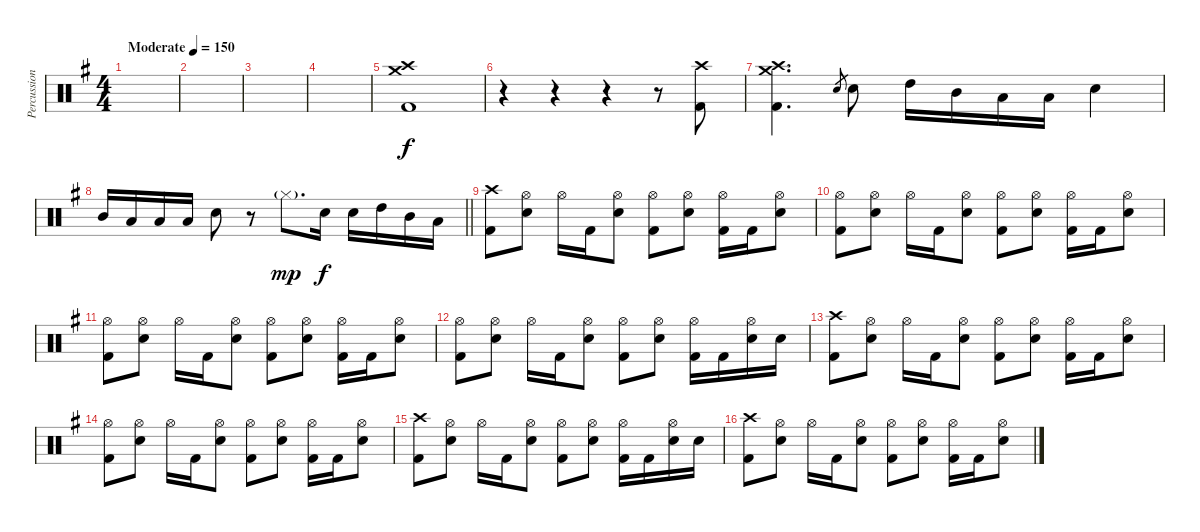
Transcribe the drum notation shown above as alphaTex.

\track ("Percussion" "Percussion") {instrument percussion}
\staff {score}
\articulation defaults
\ts (4 4)
\tempo (150 "Moderate")
\clef neutral
\ks g
|
|
|
|
("Crash medium (hit)" "Crash high (hit)" "Kick (hit) 2").1 |
r.4 r.4 r.4 r.8 ("Crash high (hit)" "Kick (hit) 2").8 |
("Crash medium (hit)" "Crash high (hit)" "Kick (hit) 2").4{d} "Electric Snare (hit)".8{gr} "Electric Snare (hit)".8 "High Tom (hit)".16 "Mid Tom (hit)".16 "Low Tom (hit)".16 "Low Tom (hit)".16 "Electric Snare (hit)".4 |
\barLineRight lightlight "Mid Tom (hit)".16 "Low Tom (hit)".16 "Low Tom (hit)".16 "Low Tom (hit)".16 "Electric Snare (hit)".8
r.8 "Hi-Hat (closed)"{g}.8{d dy mp} "Electric Snare (hit)".16{dy f} "Electric Snare (hit)".16 "High Tom (hit)".16 "Mid Tom (hit)".16 "Low Tom (hit)".16 |
("Crash high (hit)" "Kick (hit) 2").8 ("Hi-Hat (open)" "Electric Snare (hit)").8 "Hi-Hat (open)".16 "Kick (hit) 2".16 ("Hi-Hat (open)" "Electric Snare (hit)").8 ("Hi-Hat (open)" "Kick (hit) 2").8 ("Hi-Hat (open)" "Electric Snare (hit)").8 ("Hi-Hat (open)" "Kick (hit) 2").16 "Kick (hit) 2".16 ("Hi-Hat (open)" "Electric Snare (hit)").8 |
("Hi-Hat (open)" "Kick (hit) 2").8 ("Hi-Hat (open)" "Electric Snare (hit)").8 "Hi-Hat (open)".16 "Kick (hit) 2".16 ("Hi-Hat (open)" "Electric Snare (hit)").8 ("Hi-Hat (open)" "Kick (hit) 2").8 ("Hi-Hat (open)" "Electric Snare (hit)").8 ("Hi-Hat (open)" "Kick (hit) 2").16 "Kick (hit) 2".16 ("Hi-Hat (open)" "Electric Snare (hit)").8 |
("Hi-Hat (open)" "Kick (hit) 2").8 ("Hi-Hat (open)" "Electric Snare (hit)").8 "Hi-Hat (open)".16 "Kick (hit) 2".16 ("Hi-Hat (open)" "Electric Snare (hit)").8 ("Hi-Hat (open)" "Kick (hit) 2").8 ("Hi-Hat (open)" "Electric Snare (hit)").8 ("Hi-Hat (open)" "Kick (hit) 2").16 "Kick (hit) 2".16 ("Hi-Hat (open)" "Electric Snare (hit)").8 |
("Hi-Hat (open)" "Kick (hit) 2").8 ("Hi-Hat (open)" "Electric Snare (hit)").8 "Hi-Hat (open)".16 "Kick (hit) 2".16 ("Hi-Hat (open)" "Electric Snare (hit)").8 ("Hi-Hat (open)" "Kick (hit) 2").8 ("Hi-Hat (open)" "Electric Snare (hit)").8 ("Hi-Hat (open)" "Kick (hit) 2").16 "Kick (hit) 2".16 ("Hi-Hat (open)" "Electric Snare (hit)").16 "Electric Snare (hit)".16 |
("Crash high (hit)" "Kick (hit) 2").8 ("Hi-Hat (open)" "Electric Snare (hit)").8 "Hi-Hat (open)".16 "Kick (hit) 2".16 ("Hi-Hat (open)" "Electric Snare (hit)").8 ("Hi-Hat (open)" "Kick (hit) 2").8 ("Hi-Hat (open)" "Electric Snare (hit)").8 ("Hi-Hat (open)" "Kick (hit) 2").16 "Kick (hit) 2".16 ("Hi-Hat (open)" "Electric Snare (hit)").8 |
("Hi-Hat (open)" "Kick (hit) 2").8 ("Hi-Hat (open)" "Electric Snare (hit)").8 "Hi-Hat (open)".16 "Kick (hit) 2".16 ("Hi-Hat (open)" "Electric Snare (hit)").8 ("Hi-Hat (open)" "Kick (hit) 2").8 ("Hi-Hat (open)" "Electric Snare (hit)").8 ("Hi-Hat (open)" "Kick (hit) 2").16 "Kick (hit) 2".16 ("Hi-Hat (open)" "Electric Snare (hit)").8 |
("Crash high (hit)" "Kick (hit) 2").8 ("Hi-Hat (open)" "Electric Snare (hit)").8 "Hi-Hat (open)".16 "Kick (hit) 2".16 ("Hi-Hat (open)" "Electric Snare (hit)").8 ("Hi-Hat (open)" "Kick (hit) 2").8 ("Hi-Hat (open)" "Electric Snare (hit)").8 ("Hi-Hat (open)" "Kick (hit) 2").16 "Kick (hit) 2".16 ("Hi-Hat (open)" "Electric Snare (hit)").16 "Electric Snare (hit)".16 |
("Crash high (hit)" "Kick (hit) 2").8 ("Hi-Hat (open)" "Electric Snare (hit)").8 "Hi-Hat (open)".16 "Kick (hit) 2".16 ("Hi-Hat (open)" "Electric Snare (hit)").8 ("Hi-Hat (open)" "Kick (hit) 2").8 ("Hi-Hat (open)" "Electric Snare (hit)").8 ("Hi-Hat (open)" "Kick (hit) 2").16 "Kick (hit) 2".16 ("Hi-Hat (open)" "Electric Snare (hit)").8
